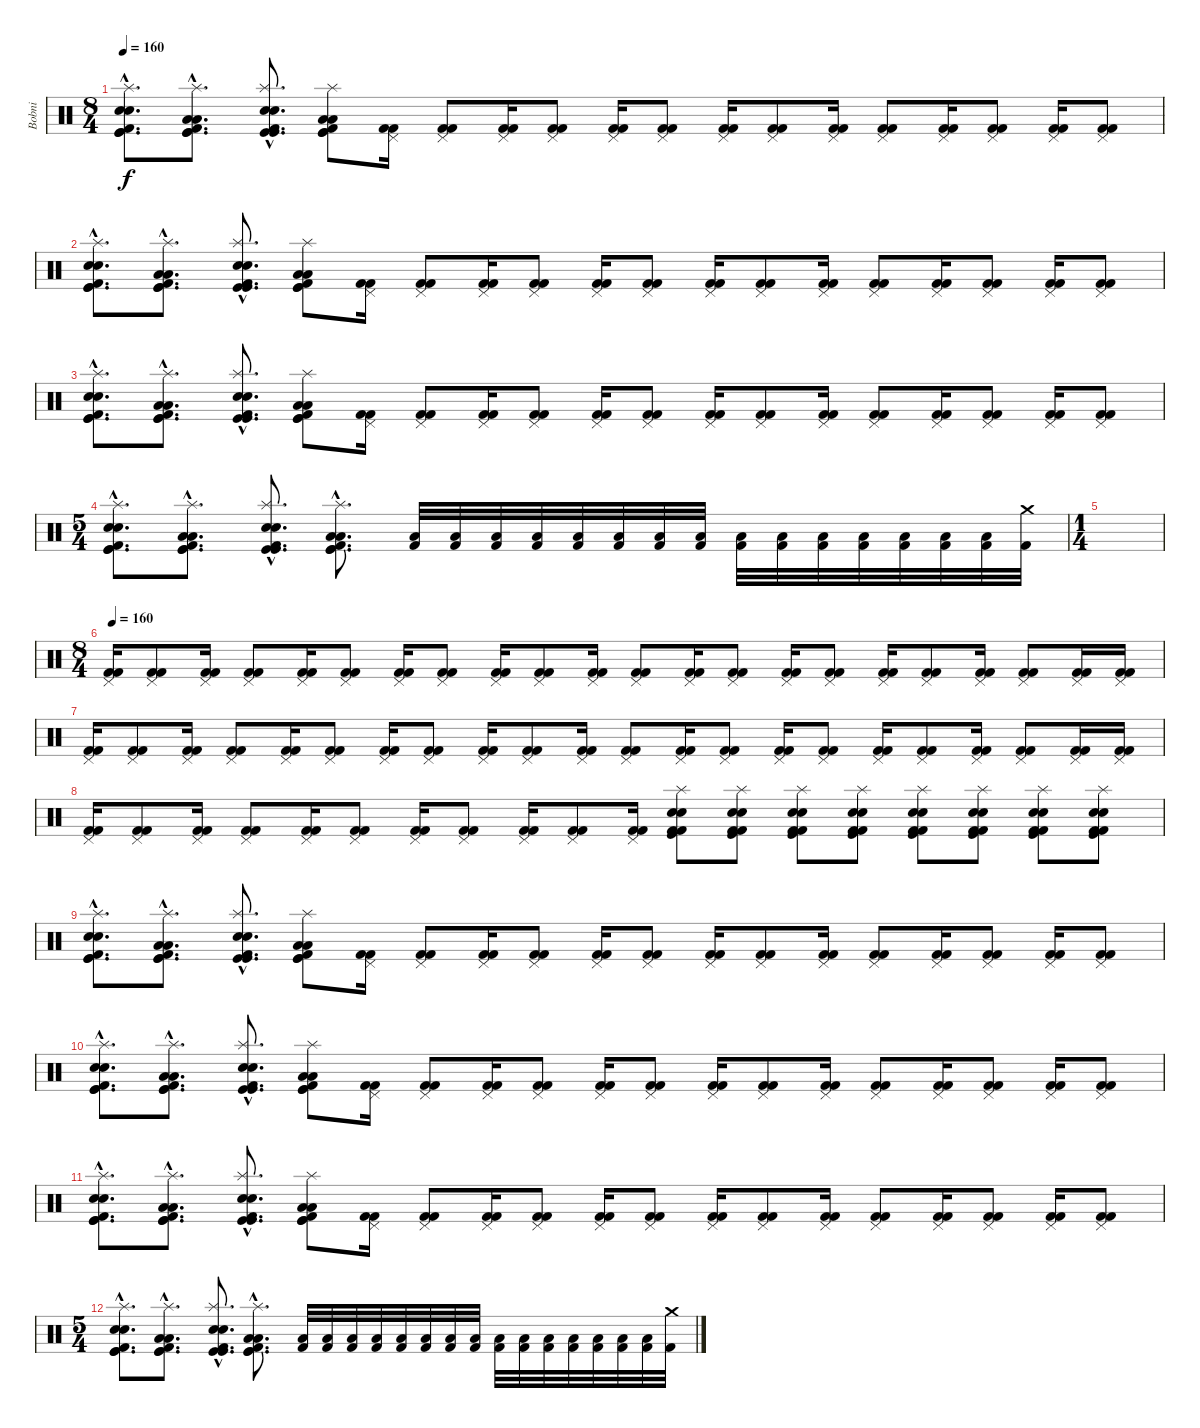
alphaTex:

\track ("Bobni" "Bobni") {instrument percussion}
\staff {score}
\articulation defaults
\ts (8 4)
\tempo 160
\clef neutral
\ks c
("Snare (hit) 2"{hac} "Snare (hit) 2"{hac} "Splash (hit)"{hac} "Kick (hit) 2"{hac} "Kick (hit)"{hac} "Kick (hit)"{hac}).8{d dy f} ("Low Floor Tom (hit)"{hac} "Low Floor Tom (hit)"{hac} "Splash (hit)"{hac} "Kick (hit) 2"{hac} "Kick (hit)"{hac} "Kick (hit)"{hac}).8{d} ("Snare (hit) 2"{hac} "Snare (hit) 2"{hac} "Splash (hit)"{hac} "Kick (hit) 2"{hac} "Kick (hit)"{hac} "Kick (hit)"{hac}).8{d} ("Low Floor Tom (hit)" "Low Floor Tom (hit)" "Splash (hit)" "Kick (hit) 2" "Kick (hit)" "Kick (hit)").8 ("Pedal Hi-Hat (hit)" "Kick (hit) 2" "Kick (hit) 2").16 ("Pedal Hi-Hat (hit)" "Kick (hit) 2" "Kick (hit) 2").8 ("Pedal Hi-Hat (hit)" "Kick (hit) 2" "Kick (hit) 2").16 ("Pedal Hi-Hat (hit)" "Kick (hit) 2" "Kick (hit) 2").8 ("Pedal Hi-Hat (hit)" "Kick (hit) 2" "Kick (hit) 2").16 ("Pedal Hi-Hat (hit)" "Kick (hit) 2" "Kick (hit) 2").8 ("Pedal Hi-Hat (hit)" "Kick (hit) 2" "Kick (hit) 2").16 ("Pedal Hi-Hat (hit)" "Kick (hit) 2" "Kick (hit) 2").8 ("Pedal Hi-Hat (hit)" "Kick (hit) 2" "Kick (hit) 2").16 ("Pedal Hi-Hat (hit)" "Kick (hit) 2" "Kick (hit) 2").8 ("Pedal Hi-Hat (hit)" "Kick (hit) 2" "Kick (hit) 2").16 ("Pedal Hi-Hat (hit)" "Kick (hit) 2" "Kick (hit) 2").8 ("Pedal Hi-Hat (hit)" "Kick (hit) 2" "Kick (hit) 2").16 ("Pedal Hi-Hat (hit)" "Kick (hit) 2" "Kick (hit) 2").8 |
("Snare (hit) 2"{hac} "Snare (hit) 2"{hac} "Splash (hit)"{hac} "Kick (hit) 2"{hac} "Kick (hit)"{hac} "Kick (hit)"{hac}).8{d} ("Low Floor Tom (hit)"{hac} "Low Floor Tom (hit)"{hac} "Splash (hit)"{hac} "Kick (hit) 2"{hac} "Kick (hit)"{hac} "Kick (hit)"{hac}).8{d} ("Snare (hit) 2"{hac} "Snare (hit) 2"{hac} "Splash (hit)"{hac} "Kick (hit) 2"{hac} "Kick (hit)"{hac} "Kick (hit)"{hac}).8{d} ("Low Floor Tom (hit)" "Low Floor Tom (hit)" "Splash (hit)" "Kick (hit) 2" "Kick (hit)" "Kick (hit)").8 ("Pedal Hi-Hat (hit)" "Kick (hit) 2" "Kick (hit) 2").16 ("Pedal Hi-Hat (hit)" "Kick (hit) 2" "Kick (hit) 2").8 ("Pedal Hi-Hat (hit)" "Kick (hit) 2" "Kick (hit) 2").16 ("Pedal Hi-Hat (hit)" "Kick (hit) 2" "Kick (hit) 2").8 ("Pedal Hi-Hat (hit)" "Kick (hit) 2" "Kick (hit) 2").16 ("Pedal Hi-Hat (hit)" "Kick (hit) 2" "Kick (hit) 2").8 ("Pedal Hi-Hat (hit)" "Kick (hit) 2" "Kick (hit) 2").16 ("Pedal Hi-Hat (hit)" "Kick (hit) 2" "Kick (hit) 2").8 ("Pedal Hi-Hat (hit)" "Kick (hit) 2" "Kick (hit) 2").16 ("Pedal Hi-Hat (hit)" "Kick (hit) 2" "Kick (hit) 2").8 ("Pedal Hi-Hat (hit)" "Kick (hit) 2" "Kick (hit) 2").16 ("Pedal Hi-Hat (hit)" "Kick (hit) 2" "Kick (hit) 2").8 ("Pedal Hi-Hat (hit)" "Kick (hit) 2" "Kick (hit) 2").16 ("Pedal Hi-Hat (hit)" "Kick (hit) 2" "Kick (hit) 2").8 |
("Snare (hit) 2"{hac} "Snare (hit) 2"{hac} "Splash (hit)"{hac} "Kick (hit) 2"{hac} "Kick (hit)"{hac} "Kick (hit)"{hac}).8{d} ("Low Floor Tom (hit)"{hac} "Low Floor Tom (hit)"{hac} "Splash (hit)"{hac} "Kick (hit) 2"{hac} "Kick (hit)"{hac} "Kick (hit)"{hac}).8{d} ("Snare (hit) 2"{hac} "Snare (hit) 2"{hac} "Splash (hit)"{hac} "Kick (hit) 2"{hac} "Kick (hit)"{hac} "Kick (hit)"{hac}).8{d} ("Low Floor Tom (hit)" "Low Floor Tom (hit)" "Splash (hit)" "Kick (hit) 2" "Kick (hit)" "Kick (hit)").8 ("Pedal Hi-Hat (hit)" "Kick (hit) 2" "Kick (hit) 2").16 ("Pedal Hi-Hat (hit)" "Kick (hit) 2" "Kick (hit) 2").8 ("Pedal Hi-Hat (hit)" "Kick (hit) 2" "Kick (hit) 2").16 ("Pedal Hi-Hat (hit)" "Kick (hit) 2" "Kick (hit) 2").8 ("Pedal Hi-Hat (hit)" "Kick (hit) 2" "Kick (hit) 2").16 ("Pedal Hi-Hat (hit)" "Kick (hit) 2" "Kick (hit) 2").8 ("Pedal Hi-Hat (hit)" "Kick (hit) 2" "Kick (hit) 2").16 ("Pedal Hi-Hat (hit)" "Kick (hit) 2" "Kick (hit) 2").8 ("Pedal Hi-Hat (hit)" "Kick (hit) 2" "Kick (hit) 2").16 ("Pedal Hi-Hat (hit)" "Kick (hit) 2" "Kick (hit) 2").8 ("Pedal Hi-Hat (hit)" "Kick (hit) 2" "Kick (hit) 2").16 ("Pedal Hi-Hat (hit)" "Kick (hit) 2" "Kick (hit) 2").8 ("Pedal Hi-Hat (hit)" "Kick (hit) 2" "Kick (hit) 2").16 ("Pedal Hi-Hat (hit)" "Kick (hit) 2" "Kick (hit) 2").8 |
\ts (5 4)
("Snare (hit) 2"{hac} "Snare (hit) 2"{hac} "Splash (hit)"{hac} "Kick (hit) 2"{hac} "Kick (hit)"{hac} "Kick (hit)"{hac}).8{d} ("Low Floor Tom (hit)"{hac} "Low Floor Tom (hit)"{hac} "Splash (hit)"{hac} "Kick (hit) 2"{hac} "Kick (hit)"{hac} "Kick (hit)"{hac}).8{d} ("Snare (hit) 2"{hac} "Snare (hit) 2"{hac} "Splash (hit)"{hac} "Kick (hit) 2"{hac} "Kick (hit)"{hac} "Kick (hit)"{hac}).8{d} ("Low Floor Tom (hit)"{hac} "Low Floor Tom (hit)"{hac} "Splash (hit)"{hac} "Kick (hit) 2"{hac} "Kick (hit)"{hac} "Kick (hit)"{hac}).8{d} ("Low Floor Tom (hit)" "Kick (hit) 2").32 ("Low Floor Tom (hit)" "Kick (hit) 2").32 ("Low Floor Tom (hit)" "Kick (hit) 2").32 ("Low Floor Tom (hit)" "Kick (hit) 2").32 ("Low Floor Tom (hit)" "Kick (hit) 2").32 ("Low Floor Tom (hit)" "Kick (hit) 2").32 ("Low Floor Tom (hit)" "Kick (hit) 2").32 ("Low Floor Tom (hit)" "Kick (hit) 2").32 ("Low Floor Tom (hit)" "Kick (hit) 2").32 ("Low Floor Tom (hit)" "Kick (hit) 2").32 ("Low Floor Tom (hit)" "Kick (hit) 2").32 ("Low Floor Tom (hit)" "Kick (hit) 2").32 ("Low Floor Tom (hit)" "Kick (hit) 2").32 ("Low Floor Tom (hit)" "Kick (hit) 2").32 ("Low Floor Tom (hit)" "Kick (hit) 2").32 ("Crash medium (hit)" "Kick (hit) 2").32 |
\ts (1 4)
|
\ts (8 4)
\tempo 160
("Pedal Hi-Hat (hit)" "Kick (hit) 2" "Kick (hit) 2").16 ("Pedal Hi-Hat (hit)" "Kick (hit) 2" "Kick (hit) 2").8 ("Pedal Hi-Hat (hit)" "Kick (hit) 2" "Kick (hit) 2").16 ("Pedal Hi-Hat (hit)" "Kick (hit) 2" "Kick (hit) 2").8 ("Pedal Hi-Hat (hit)" "Kick (hit) 2" "Kick (hit) 2").16 ("Pedal Hi-Hat (hit)" "Kick (hit) 2" "Kick (hit) 2").8 ("Pedal Hi-Hat (hit)" "Kick (hit) 2" "Kick (hit) 2").16 ("Pedal Hi-Hat (hit)" "Kick (hit) 2" "Kick (hit) 2").8 ("Pedal Hi-Hat (hit)" "Kick (hit) 2" "Kick (hit) 2").16 ("Pedal Hi-Hat (hit)" "Kick (hit) 2" "Kick (hit) 2").8 ("Pedal Hi-Hat (hit)" "Kick (hit) 2" "Kick (hit) 2").16 ("Pedal Hi-Hat (hit)" "Kick (hit) 2" "Kick (hit) 2").8 ("Pedal Hi-Hat (hit)" "Kick (hit) 2" "Kick (hit) 2").16 ("Pedal Hi-Hat (hit)" "Kick (hit) 2" "Kick (hit) 2").8 ("Pedal Hi-Hat (hit)" "Kick (hit) 2" "Kick (hit) 2").16 ("Pedal Hi-Hat (hit)" "Kick (hit) 2" "Kick (hit) 2").8 ("Pedal Hi-Hat (hit)" "Kick (hit) 2" "Kick (hit) 2").16 ("Pedal Hi-Hat (hit)" "Kick (hit) 2" "Kick (hit) 2").8 ("Pedal Hi-Hat (hit)" "Kick (hit) 2" "Kick (hit) 2").16 ("Pedal Hi-Hat (hit)" "Kick (hit) 2" "Kick (hit) 2").8 ("Pedal Hi-Hat (hit)" "Kick (hit) 2" "Kick (hit) 2").16 ("Pedal Hi-Hat (hit)" "Kick (hit) 2" "Kick (hit) 2").16 |
("Pedal Hi-Hat (hit)" "Kick (hit) 2" "Kick (hit) 2").16 ("Pedal Hi-Hat (hit)" "Kick (hit) 2" "Kick (hit) 2").8 ("Pedal Hi-Hat (hit)" "Kick (hit) 2" "Kick (hit) 2").16 ("Pedal Hi-Hat (hit)" "Kick (hit) 2" "Kick (hit) 2").8 ("Pedal Hi-Hat (hit)" "Kick (hit) 2" "Kick (hit) 2").16 ("Pedal Hi-Hat (hit)" "Kick (hit) 2" "Kick (hit) 2").8 ("Pedal Hi-Hat (hit)" "Kick (hit) 2" "Kick (hit) 2").16 ("Pedal Hi-Hat (hit)" "Kick (hit) 2" "Kick (hit) 2").8 ("Pedal Hi-Hat (hit)" "Kick (hit) 2" "Kick (hit) 2").16 ("Pedal Hi-Hat (hit)" "Kick (hit) 2" "Kick (hit) 2").8 ("Pedal Hi-Hat (hit)" "Kick (hit) 2" "Kick (hit) 2").16 ("Pedal Hi-Hat (hit)" "Kick (hit) 2" "Kick (hit) 2").8 ("Pedal Hi-Hat (hit)" "Kick (hit) 2" "Kick (hit) 2").16 ("Pedal Hi-Hat (hit)" "Kick (hit) 2" "Kick (hit) 2").8 ("Pedal Hi-Hat (hit)" "Kick (hit) 2" "Kick (hit) 2").16 ("Pedal Hi-Hat (hit)" "Kick (hit) 2" "Kick (hit) 2").8 ("Pedal Hi-Hat (hit)" "Kick (hit) 2" "Kick (hit) 2").16 ("Pedal Hi-Hat (hit)" "Kick (hit) 2" "Kick (hit) 2").8 ("Pedal Hi-Hat (hit)" "Kick (hit) 2" "Kick (hit) 2").16 ("Pedal Hi-Hat (hit)" "Kick (hit) 2" "Kick (hit) 2").8 ("Pedal Hi-Hat (hit)" "Kick (hit) 2" "Kick (hit) 2").16 ("Pedal Hi-Hat (hit)" "Kick (hit) 2" "Kick (hit) 2").16 |
("Pedal Hi-Hat (hit)" "Kick (hit) 2" "Kick (hit) 2").16 ("Pedal Hi-Hat (hit)" "Kick (hit) 2" "Kick (hit) 2").8 ("Pedal Hi-Hat (hit)" "Kick (hit) 2" "Kick (hit) 2").16 ("Pedal Hi-Hat (hit)" "Kick (hit) 2" "Kick (hit) 2").8 ("Pedal Hi-Hat (hit)" "Kick (hit) 2" "Kick (hit) 2").16 ("Pedal Hi-Hat (hit)" "Kick (hit) 2" "Kick (hit) 2").8 ("Pedal Hi-Hat (hit)" "Kick (hit) 2" "Kick (hit) 2").16 ("Pedal Hi-Hat (hit)" "Kick (hit) 2" "Kick (hit) 2").8 ("Pedal Hi-Hat (hit)" "Kick (hit) 2" "Kick (hit) 2").16 ("Pedal Hi-Hat (hit)" "Kick (hit) 2" "Kick (hit) 2").8 ("Pedal Hi-Hat (hit)" "Kick (hit) 2" "Kick (hit) 2").16 ("Snare (hit) 2" "Snare (hit) 2" "Splash (hit)" "Kick (hit)" "Kick (hit) 2" "Kick (hit) 2").8 ("Electric Snare (hit)" "Electric Snare (hit)" "Splash (hit)" "Kick (hit)" "Kick (hit) 2" "Kick (hit) 2").8 ("Snare (hit) 2" "Snare (hit) 2" "Splash (hit)" "Kick (hit)" "Kick (hit) 2" "Kick (hit) 2").8 ("Electric Snare (hit)" "Electric Snare (hit)" "Splash (hit)" "Kick (hit)" "Kick (hit) 2" "Kick (hit) 2").8 ("Snare (hit) 2" "Snare (hit) 2" "Splash (hit)" "Kick (hit)" "Kick (hit) 2" "Kick (hit) 2").8 ("Electric Snare (hit)" "Electric Snare (hit)" "Splash (hit)" "Kick (hit)" "Kick (hit) 2" "Kick (hit) 2").8 ("Snare (hit) 2" "Snare (hit) 2" "Splash (hit)" "Kick (hit)" "Kick (hit) 2" "Kick (hit) 2").8 ("Electric Snare (hit)" "Electric Snare (hit)" "Splash (hit)" "Kick (hit)" "Kick (hit) 2" "Kick (hit) 2").8 |
("Snare (hit) 2"{hac} "Snare (hit) 2"{hac} "Splash (hit)"{hac} "Kick (hit) 2"{hac} "Kick (hit)"{hac} "Kick (hit)"{hac}).8{d} ("Low Floor Tom (hit)"{hac} "Low Floor Tom (hit)"{hac} "Splash (hit)"{hac} "Kick (hit) 2"{hac} "Kick (hit)"{hac} "Kick (hit)"{hac}).8{d} ("Snare (hit) 2"{hac} "Snare (hit) 2"{hac} "Splash (hit)"{hac} "Kick (hit) 2"{hac} "Kick (hit)"{hac} "Kick (hit)"{hac}).8{d} ("Low Floor Tom (hit)" "Low Floor Tom (hit)" "Splash (hit)" "Kick (hit) 2" "Kick (hit)" "Kick (hit)").8 ("Pedal Hi-Hat (hit)" "Kick (hit) 2" "Kick (hit) 2").16 ("Pedal Hi-Hat (hit)" "Kick (hit) 2" "Kick (hit) 2").8 ("Pedal Hi-Hat (hit)" "Kick (hit) 2" "Kick (hit) 2").16 ("Pedal Hi-Hat (hit)" "Kick (hit) 2" "Kick (hit) 2").8 ("Pedal Hi-Hat (hit)" "Kick (hit) 2" "Kick (hit) 2").16 ("Pedal Hi-Hat (hit)" "Kick (hit) 2" "Kick (hit) 2").8 ("Pedal Hi-Hat (hit)" "Kick (hit) 2" "Kick (hit) 2").16 ("Pedal Hi-Hat (hit)" "Kick (hit) 2" "Kick (hit) 2").8 ("Pedal Hi-Hat (hit)" "Kick (hit) 2" "Kick (hit) 2").16 ("Pedal Hi-Hat (hit)" "Kick (hit) 2" "Kick (hit) 2").8 ("Pedal Hi-Hat (hit)" "Kick (hit) 2" "Kick (hit) 2").16 ("Pedal Hi-Hat (hit)" "Kick (hit) 2" "Kick (hit) 2").8 ("Pedal Hi-Hat (hit)" "Kick (hit) 2" "Kick (hit) 2").16 ("Pedal Hi-Hat (hit)" "Kick (hit) 2" "Kick (hit) 2").8 |
("Snare (hit) 2"{hac} "Snare (hit) 2"{hac} "Splash (hit)"{hac} "Kick (hit) 2"{hac} "Kick (hit)"{hac} "Kick (hit)"{hac}).8{d} ("Low Floor Tom (hit)"{hac} "Low Floor Tom (hit)"{hac} "Splash (hit)"{hac} "Kick (hit) 2"{hac} "Kick (hit)"{hac} "Kick (hit)"{hac}).8{d} ("Snare (hit) 2"{hac} "Snare (hit) 2"{hac} "Splash (hit)"{hac} "Kick (hit) 2"{hac} "Kick (hit)"{hac} "Kick (hit)"{hac}).8{d} ("Low Floor Tom (hit)" "Low Floor Tom (hit)" "Splash (hit)" "Kick (hit) 2" "Kick (hit)" "Kick (hit)").8 ("Pedal Hi-Hat (hit)" "Kick (hit) 2" "Kick (hit) 2").16 ("Pedal Hi-Hat (hit)" "Kick (hit) 2" "Kick (hit) 2").8 ("Pedal Hi-Hat (hit)" "Kick (hit) 2" "Kick (hit) 2").16 ("Pedal Hi-Hat (hit)" "Kick (hit) 2" "Kick (hit) 2").8 ("Pedal Hi-Hat (hit)" "Kick (hit) 2" "Kick (hit) 2").16 ("Pedal Hi-Hat (hit)" "Kick (hit) 2" "Kick (hit) 2").8 ("Pedal Hi-Hat (hit)" "Kick (hit) 2" "Kick (hit) 2").16 ("Pedal Hi-Hat (hit)" "Kick (hit) 2" "Kick (hit) 2").8 ("Pedal Hi-Hat (hit)" "Kick (hit) 2" "Kick (hit) 2").16 ("Pedal Hi-Hat (hit)" "Kick (hit) 2" "Kick (hit) 2").8 ("Pedal Hi-Hat (hit)" "Kick (hit) 2" "Kick (hit) 2").16 ("Pedal Hi-Hat (hit)" "Kick (hit) 2" "Kick (hit) 2").8 ("Pedal Hi-Hat (hit)" "Kick (hit) 2" "Kick (hit) 2").16 ("Pedal Hi-Hat (hit)" "Kick (hit) 2" "Kick (hit) 2").8 |
("Snare (hit) 2"{hac} "Snare (hit) 2"{hac} "Splash (hit)"{hac} "Kick (hit) 2"{hac} "Kick (hit)"{hac} "Kick (hit)"{hac}).8{d} ("Low Floor Tom (hit)"{hac} "Low Floor Tom (hit)"{hac} "Splash (hit)"{hac} "Kick (hit) 2"{hac} "Kick (hit)"{hac} "Kick (hit)"{hac}).8{d} ("Snare (hit) 2"{hac} "Snare (hit) 2"{hac} "Splash (hit)"{hac} "Kick (hit) 2"{hac} "Kick (hit)"{hac} "Kick (hit)"{hac}).8{d} ("Low Floor Tom (hit)" "Low Floor Tom (hit)" "Splash (hit)" "Kick (hit) 2" "Kick (hit)" "Kick (hit)").8 ("Pedal Hi-Hat (hit)" "Kick (hit) 2" "Kick (hit) 2").16 ("Pedal Hi-Hat (hit)" "Kick (hit) 2" "Kick (hit) 2").8 ("Pedal Hi-Hat (hit)" "Kick (hit) 2" "Kick (hit) 2").16 ("Pedal Hi-Hat (hit)" "Kick (hit) 2" "Kick (hit) 2").8 ("Pedal Hi-Hat (hit)" "Kick (hit) 2" "Kick (hit) 2").16 ("Pedal Hi-Hat (hit)" "Kick (hit) 2" "Kick (hit) 2").8 ("Pedal Hi-Hat (hit)" "Kick (hit) 2" "Kick (hit) 2").16 ("Pedal Hi-Hat (hit)" "Kick (hit) 2" "Kick (hit) 2").8 ("Pedal Hi-Hat (hit)" "Kick (hit) 2" "Kick (hit) 2").16 ("Pedal Hi-Hat (hit)" "Kick (hit) 2" "Kick (hit) 2").8 ("Pedal Hi-Hat (hit)" "Kick (hit) 2" "Kick (hit) 2").16 ("Pedal Hi-Hat (hit)" "Kick (hit) 2" "Kick (hit) 2").8 ("Pedal Hi-Hat (hit)" "Kick (hit) 2" "Kick (hit) 2").16 ("Pedal Hi-Hat (hit)" "Kick (hit) 2" "Kick (hit) 2").8 |
\ts (5 4)
("Snare (hit) 2"{hac} "Snare (hit) 2"{hac} "Splash (hit)"{hac} "Kick (hit) 2"{hac} "Kick (hit)"{hac} "Kick (hit)"{hac}).8{d} ("Low Floor Tom (hit)"{hac} "Low Floor Tom (hit)"{hac} "Splash (hit)"{hac} "Kick (hit) 2"{hac} "Kick (hit)"{hac} "Kick (hit)"{hac}).8{d} ("Snare (hit) 2"{hac} "Snare (hit) 2"{hac} "Splash (hit)"{hac} "Kick (hit) 2"{hac} "Kick (hit)"{hac} "Kick (hit)"{hac}).8{d} ("Low Floor Tom (hit)"{hac} "Low Floor Tom (hit)"{hac} "Splash (hit)"{hac} "Kick (hit) 2"{hac} "Kick (hit)"{hac} "Kick (hit)"{hac}).8{d} ("Low Floor Tom (hit)" "Kick (hit) 2").32 ("Low Floor Tom (hit)" "Kick (hit) 2").32 ("Low Floor Tom (hit)" "Kick (hit) 2").32 ("Low Floor Tom (hit)" "Kick (hit) 2").32 ("Low Floor Tom (hit)" "Kick (hit) 2").32 ("Low Floor Tom (hit)" "Kick (hit) 2").32 ("Low Floor Tom (hit)" "Kick (hit) 2").32 ("Low Floor Tom (hit)" "Kick (hit) 2").32 ("Low Floor Tom (hit)" "Kick (hit) 2").32 ("Low Floor Tom (hit)" "Kick (hit) 2").32 ("Low Floor Tom (hit)" "Kick (hit) 2").32 ("Low Floor Tom (hit)" "Kick (hit) 2").32 ("Low Floor Tom (hit)" "Kick (hit) 2").32 ("Low Floor Tom (hit)" "Kick (hit) 2").32 ("Low Floor Tom (hit)" "Kick (hit) 2").32 ("Crash medium (hit)" "Kick (hit) 2").32
